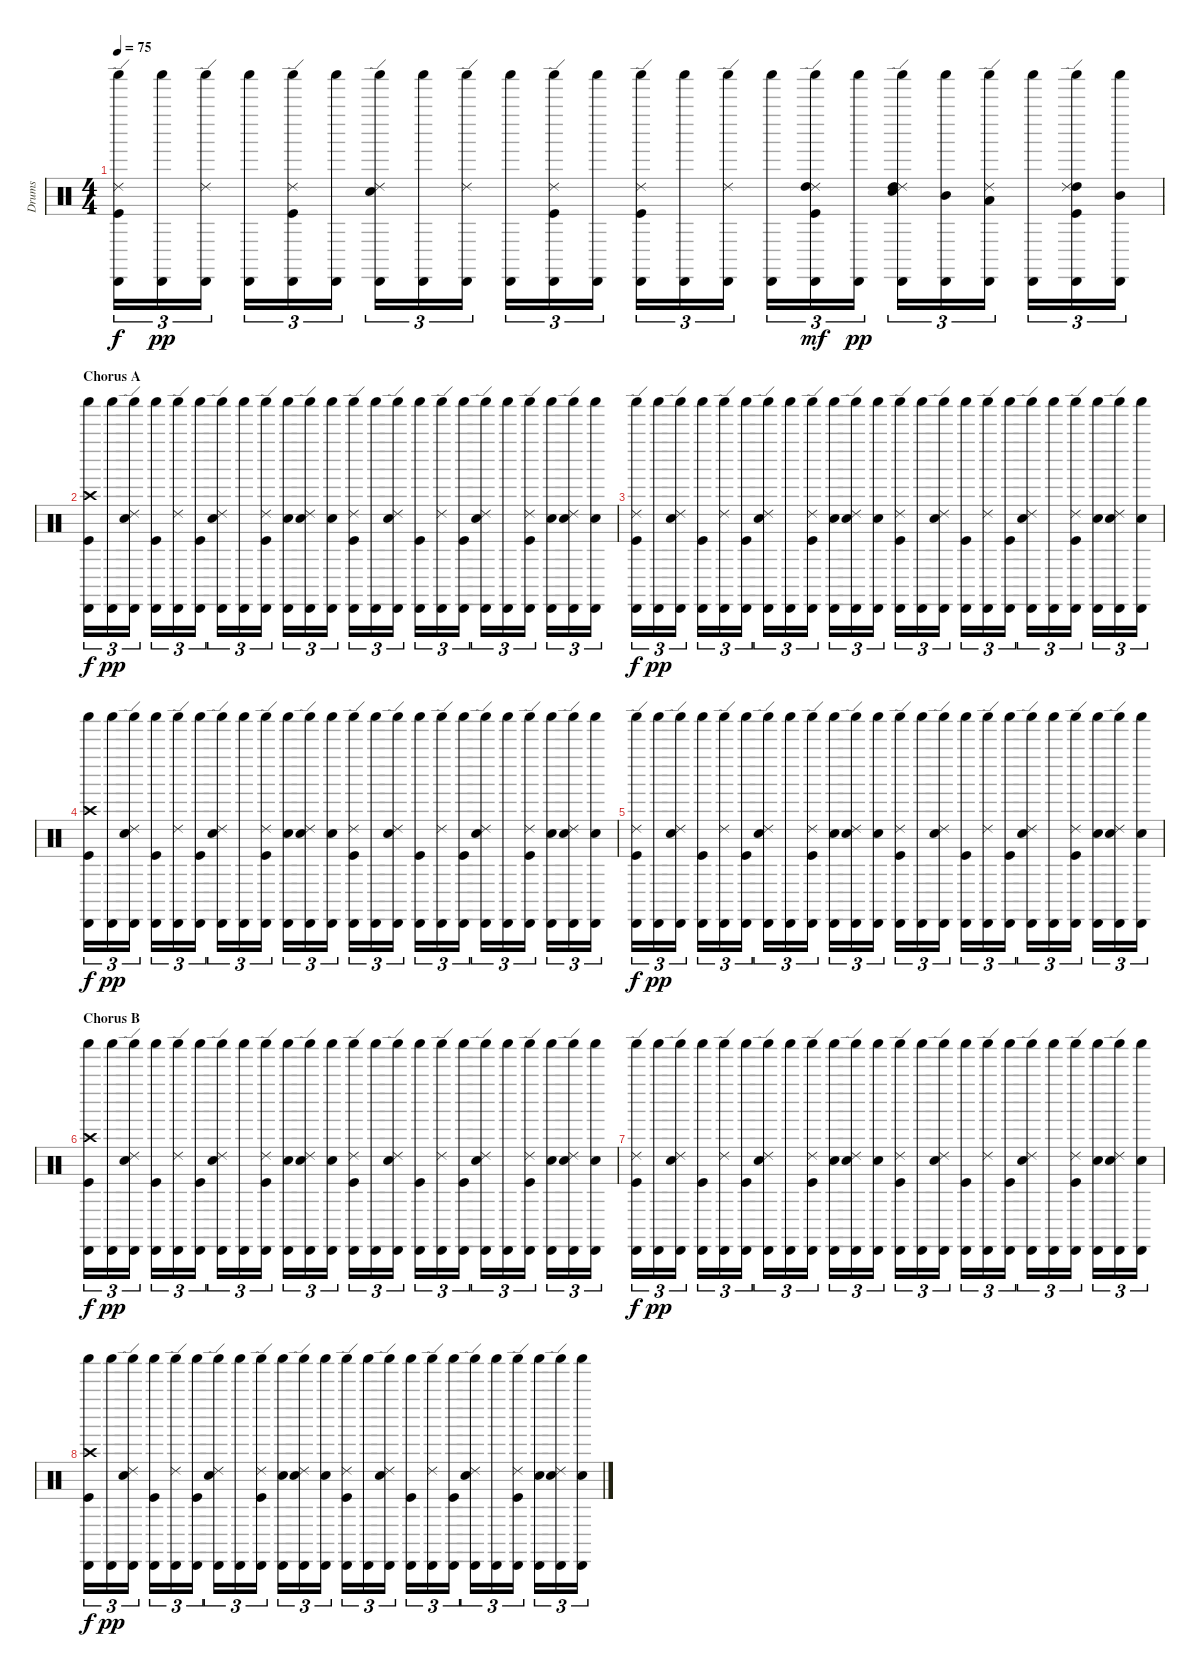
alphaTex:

\track ("Drums" "Drums") {instrument percussion}
\staff {score}
\articulation defaults
\ts (4 4)
\tempo 75
\clef neutral
\ks c
("Ride (edge) 2" "Shaker (hit)" "Cabasa (hit)" "Kick (hit)").16{tu (3 2) dy f} ("Cabasa (hit)" "Shaker (hit)").16{tu (3 2) dy pp} ("Cabasa (hit)" "Ride (edge) 2" "Shaker (hit)").16{tu (3 2)} ("Cabasa (hit)" "Shaker (hit)").16{tu (3 2)} ("Ride (edge) 2" "Kick (hit)" "Cabasa (hit)" "Shaker (hit)").16{tu (3 2)} ("Cabasa (hit)" "Shaker (hit)").16{tu (3 2)} ("Electric Snare (hit)" "Cabasa (hit)" "Ride (edge) 2" "Shaker (hit)").16{tu (3 2)} ("Cabasa (hit)" "Shaker (hit)").16{tu (3 2)} ("Ride (edge) 2" "Cabasa (hit)" "Shaker (hit)").16{tu (3 2)} ("Cabasa (hit)" "Shaker (hit)").16{tu (3 2)} ("Cabasa (hit)" "Ride (edge) 2" "Kick (hit)" "Shaker (hit)").16{tu (3 2)} ("Cabasa (hit)" "Shaker (hit)").16{tu (3 2)} ("Ride (edge) 2" "Cabasa (hit)" "Kick (hit)" "Shaker (hit)").16{tu (3 2)} ("Cabasa (hit)" "Shaker (hit)").16{tu (3 2)} ("Ride (edge) 2" "Cabasa (hit)" "Shaker (hit)").16{tu (3 2)} ("Cabasa (hit)" "Shaker (hit)").16{tu (3 2)} ("Kick (hit)" "Ride (edge) 2" "Cabasa (hit)" "Shaker (hit)" "High Tom (hit)").16{tu (3 2) dy mf} ("Cabasa (hit)" "Shaker (hit)").16{tu (3 2) dy pp} ("Cabasa (hit)" "Ride (edge) 2" "Electric Snare (hit)" "High Tom (hit)" "Shaker (hit)").16{tu (3 2)} ("Mid Tom (hit)" "Cabasa (hit)" "Shaker (hit)").16{tu (3 2)} ("Low Tom (hit)" "Cabasa (hit)" "Ride (edge) 2" "Shaker (hit)").16{tu (3 2)} ("Cabasa (hit)" "Shaker (hit)").16{tu (3 2)} ("Cabasa (hit)" "High Tom (hit)" "Ride (edge) 2" "Kick (hit)" "Shaker (hit)").16{tu (3 2)} ("Mid Tom (hit)" "Cabasa (hit)" "Shaker (hit)").16{tu (3 2)} |
\section ("" "Chorus A")
("Cabasa (hit)" "Crash high (hit)" "Kick (hit)" "Shaker (hit)").16{tu (3 2) dy f} ("Cabasa (hit)" "Shaker (hit)").16{tu (3 2) dy pp} ("Electric Snare (hit)" "Ride (edge) 2" "Cabasa (hit)" "Shaker (hit)").16{tu (3 2)} ("Cabasa (hit)" "Kick (hit)" "Shaker (hit)").16{tu (3 2)} ("Ride (edge) 2" "Cabasa (hit)" "Shaker (hit)").16{tu (3 2)} ("Kick (hit)" "Cabasa (hit)" "Shaker (hit)").16{tu (3 2)} ("Cabasa (hit)" "Electric Snare (hit)" "Ride (edge) 2" "Shaker (hit)").16{tu (3 2)} ("Cabasa (hit)" "Shaker (hit)").16{tu (3 2)} ("Cabasa (hit)" "Ride (edge) 2" "Kick (hit)" "Shaker (hit)").16{tu (3 2)} ("Cabasa (hit)" "Electric Snare (hit)" "Shaker (hit)").16{tu (3 2)} ("Electric Snare (hit)" "Ride (edge) 2" "Cabasa (hit)" "Shaker (hit)").16{tu (3 2)} ("Cabasa (hit)" "Electric Snare (hit)" "Shaker (hit)").16{tu (3 2)} ("Cabasa (hit)" "Ride (edge) 2" "Kick (hit)" "Shaker (hit)").16{tu (3 2)} ("Cabasa (hit)" "Shaker (hit)").16{tu (3 2)} ("Cabasa (hit)" "Electric Snare (hit)" "Ride (edge) 2" "Shaker (hit)").16{tu (3 2)} ("Cabasa (hit)" "Kick (hit)" "Shaker (hit)").16{tu (3 2)} ("Cabasa (hit)" "Ride (edge) 2" "Shaker (hit)").16{tu (3 2)} ("Kick (hit)" "Cabasa (hit)" "Shaker (hit)").16{tu (3 2)} ("Cabasa (hit)" "Electric Snare (hit)" "Ride (edge) 2" "Shaker (hit)").16{tu (3 2)} ("Cabasa (hit)" "Shaker (hit)").16{tu (3 2)} ("Cabasa (hit)" "Kick (hit)" "Ride (edge) 2" "Shaker (hit)").16{tu (3 2)} ("Cabasa (hit)" "Electric Snare (hit)" "Shaker (hit)").16{tu (3 2)} ("Electric Snare (hit)" "Ride (edge) 2" "Cabasa (hit)" "Shaker (hit)").16{tu (3 2)} ("Cabasa (hit)" "Electric Snare (hit)" "Shaker (hit)").16{tu (3 2)} |
("Cabasa (hit)" "Ride (edge) 2" "Kick (hit)" "Shaker (hit)").16{tu (3 2) dy f} ("Cabasa (hit)" "Shaker (hit)").16{tu (3 2) dy pp} ("Electric Snare (hit)" "Ride (edge) 2" "Cabasa (hit)" "Shaker (hit)").16{tu (3 2)} ("Cabasa (hit)" "Kick (hit)" "Shaker (hit)").16{tu (3 2)} ("Ride (edge) 2" "Cabasa (hit)" "Shaker (hit)").16{tu (3 2)} ("Kick (hit)" "Cabasa (hit)" "Shaker (hit)").16{tu (3 2)} ("Cabasa (hit)" "Electric Snare (hit)" "Ride (edge) 2" "Shaker (hit)").16{tu (3 2)} ("Cabasa (hit)" "Shaker (hit)").16{tu (3 2)} ("Cabasa (hit)" "Ride (edge) 2" "Kick (hit)" "Shaker (hit)").16{tu (3 2)} ("Cabasa (hit)" "Electric Snare (hit)" "Shaker (hit)").16{tu (3 2)} ("Electric Snare (hit)" "Ride (edge) 2" "Cabasa (hit)" "Shaker (hit)").16{tu (3 2)} ("Cabasa (hit)" "Electric Snare (hit)" "Shaker (hit)").16{tu (3 2)} ("Cabasa (hit)" "Ride (edge) 2" "Kick (hit)" "Shaker (hit)").16{tu (3 2)} ("Cabasa (hit)" "Shaker (hit)").16{tu (3 2)} ("Cabasa (hit)" "Electric Snare (hit)" "Ride (edge) 2" "Shaker (hit)").16{tu (3 2)} ("Cabasa (hit)" "Kick (hit)" "Shaker (hit)").16{tu (3 2)} ("Cabasa (hit)" "Ride (edge) 2" "Shaker (hit)").16{tu (3 2)} ("Kick (hit)" "Cabasa (hit)" "Shaker (hit)").16{tu (3 2)} ("Cabasa (hit)" "Electric Snare (hit)" "Ride (edge) 2" "Shaker (hit)").16{tu (3 2)} ("Cabasa (hit)" "Shaker (hit)").16{tu (3 2)} ("Cabasa (hit)" "Kick (hit)" "Ride (edge) 2" "Shaker (hit)").16{tu (3 2)} ("Cabasa (hit)" "Electric Snare (hit)" "Shaker (hit)").16{tu (3 2)} ("Electric Snare (hit)" "Ride (edge) 2" "Cabasa (hit)" "Shaker (hit)").16{tu (3 2)} ("Cabasa (hit)" "Electric Snare (hit)" "Shaker (hit)").16{tu (3 2)} |
("Cabasa (hit)" "Crash high (hit)" "Kick (hit)" "Shaker (hit)").16{tu (3 2) dy f} ("Cabasa (hit)" "Shaker (hit)").16{tu (3 2) dy pp} ("Electric Snare (hit)" "Ride (edge) 2" "Cabasa (hit)" "Shaker (hit)").16{tu (3 2)} ("Cabasa (hit)" "Kick (hit)" "Shaker (hit)").16{tu (3 2)} ("Ride (edge) 2" "Cabasa (hit)" "Shaker (hit)").16{tu (3 2)} ("Kick (hit)" "Cabasa (hit)" "Shaker (hit)").16{tu (3 2)} ("Cabasa (hit)" "Electric Snare (hit)" "Ride (edge) 2" "Shaker (hit)").16{tu (3 2)} ("Cabasa (hit)" "Shaker (hit)").16{tu (3 2)} ("Cabasa (hit)" "Ride (edge) 2" "Kick (hit)" "Shaker (hit)").16{tu (3 2)} ("Cabasa (hit)" "Electric Snare (hit)" "Shaker (hit)").16{tu (3 2)} ("Electric Snare (hit)" "Ride (edge) 2" "Cabasa (hit)" "Shaker (hit)").16{tu (3 2)} ("Cabasa (hit)" "Electric Snare (hit)" "Shaker (hit)").16{tu (3 2)} ("Cabasa (hit)" "Ride (edge) 2" "Kick (hit)" "Shaker (hit)").16{tu (3 2)} ("Cabasa (hit)" "Shaker (hit)").16{tu (3 2)} ("Cabasa (hit)" "Electric Snare (hit)" "Ride (edge) 2" "Shaker (hit)").16{tu (3 2)} ("Cabasa (hit)" "Kick (hit)" "Shaker (hit)").16{tu (3 2)} ("Cabasa (hit)" "Ride (edge) 2" "Shaker (hit)").16{tu (3 2)} ("Kick (hit)" "Cabasa (hit)" "Shaker (hit)").16{tu (3 2)} ("Cabasa (hit)" "Electric Snare (hit)" "Ride (edge) 2" "Shaker (hit)").16{tu (3 2)} ("Cabasa (hit)" "Shaker (hit)").16{tu (3 2)} ("Cabasa (hit)" "Kick (hit)" "Ride (edge) 2" "Shaker (hit)").16{tu (3 2)} ("Cabasa (hit)" "Electric Snare (hit)" "Shaker (hit)").16{tu (3 2)} ("Electric Snare (hit)" "Ride (edge) 2" "Cabasa (hit)" "Shaker (hit)").16{tu (3 2)} ("Cabasa (hit)" "Electric Snare (hit)" "Shaker (hit)").16{tu (3 2)} |
("Cabasa (hit)" "Ride (edge) 2" "Kick (hit)" "Shaker (hit)").16{tu (3 2) dy f} ("Cabasa (hit)" "Shaker (hit)").16{tu (3 2) dy pp} ("Electric Snare (hit)" "Ride (edge) 2" "Cabasa (hit)" "Shaker (hit)").16{tu (3 2)} ("Cabasa (hit)" "Kick (hit)" "Shaker (hit)").16{tu (3 2)} ("Ride (edge) 2" "Cabasa (hit)" "Shaker (hit)").16{tu (3 2)} ("Kick (hit)" "Cabasa (hit)" "Shaker (hit)").16{tu (3 2)} ("Cabasa (hit)" "Electric Snare (hit)" "Ride (edge) 2" "Shaker (hit)").16{tu (3 2)} ("Cabasa (hit)" "Shaker (hit)").16{tu (3 2)} ("Cabasa (hit)" "Ride (edge) 2" "Kick (hit)" "Shaker (hit)").16{tu (3 2)} ("Cabasa (hit)" "Electric Snare (hit)" "Shaker (hit)").16{tu (3 2)} ("Electric Snare (hit)" "Ride (edge) 2" "Cabasa (hit)" "Shaker (hit)").16{tu (3 2)} ("Cabasa (hit)" "Electric Snare (hit)" "Shaker (hit)").16{tu (3 2)} ("Cabasa (hit)" "Ride (edge) 2" "Kick (hit)" "Shaker (hit)").16{tu (3 2)} ("Cabasa (hit)" "Shaker (hit)").16{tu (3 2)} ("Cabasa (hit)" "Electric Snare (hit)" "Ride (edge) 2" "Shaker (hit)").16{tu (3 2)} ("Cabasa (hit)" "Kick (hit)" "Shaker (hit)").16{tu (3 2)} ("Cabasa (hit)" "Ride (edge) 2" "Shaker (hit)").16{tu (3 2)} ("Kick (hit)" "Cabasa (hit)" "Shaker (hit)").16{tu (3 2)} ("Cabasa (hit)" "Electric Snare (hit)" "Ride (edge) 2" "Shaker (hit)").16{tu (3 2)} ("Cabasa (hit)" "Shaker (hit)").16{tu (3 2)} ("Cabasa (hit)" "Kick (hit)" "Ride (edge) 2" "Shaker (hit)").16{tu (3 2)} ("Cabasa (hit)" "Electric Snare (hit)" "Shaker (hit)").16{tu (3 2)} ("Electric Snare (hit)" "Ride (edge) 2" "Cabasa (hit)" "Shaker (hit)").16{tu (3 2)} ("Cabasa (hit)" "Electric Snare (hit)" "Shaker (hit)").16{tu (3 2)} |
\section ("" "Chorus B")
("Cabasa (hit)" "Crash high (hit)" "Kick (hit)" "Shaker (hit)").16{tu (3 2) dy f} ("Cabasa (hit)" "Shaker (hit)").16{tu (3 2) dy pp} ("Electric Snare (hit)" "Ride (edge) 2" "Cabasa (hit)" "Shaker (hit)").16{tu (3 2)} ("Cabasa (hit)" "Kick (hit)" "Shaker (hit)").16{tu (3 2)} ("Ride (edge) 2" "Cabasa (hit)" "Shaker (hit)").16{tu (3 2)} ("Kick (hit)" "Cabasa (hit)" "Shaker (hit)").16{tu (3 2)} ("Cabasa (hit)" "Electric Snare (hit)" "Ride (edge) 2" "Shaker (hit)").16{tu (3 2)} ("Cabasa (hit)" "Shaker (hit)").16{tu (3 2)} ("Cabasa (hit)" "Ride (edge) 2" "Kick (hit)" "Shaker (hit)").16{tu (3 2)} ("Cabasa (hit)" "Electric Snare (hit)" "Shaker (hit)").16{tu (3 2)} ("Electric Snare (hit)" "Ride (edge) 2" "Cabasa (hit)" "Shaker (hit)").16{tu (3 2)} ("Cabasa (hit)" "Electric Snare (hit)" "Shaker (hit)").16{tu (3 2)} ("Cabasa (hit)" "Ride (edge) 2" "Kick (hit)" "Shaker (hit)").16{tu (3 2)} ("Cabasa (hit)" "Shaker (hit)").16{tu (3 2)} ("Cabasa (hit)" "Electric Snare (hit)" "Ride (edge) 2" "Shaker (hit)").16{tu (3 2)} ("Cabasa (hit)" "Kick (hit)" "Shaker (hit)").16{tu (3 2)} ("Cabasa (hit)" "Ride (edge) 2" "Shaker (hit)").16{tu (3 2)} ("Kick (hit)" "Cabasa (hit)" "Shaker (hit)").16{tu (3 2)} ("Cabasa (hit)" "Electric Snare (hit)" "Ride (edge) 2" "Shaker (hit)").16{tu (3 2)} ("Cabasa (hit)" "Shaker (hit)").16{tu (3 2)} ("Cabasa (hit)" "Kick (hit)" "Ride (edge) 2" "Shaker (hit)").16{tu (3 2)} ("Cabasa (hit)" "Electric Snare (hit)" "Shaker (hit)").16{tu (3 2)} ("Electric Snare (hit)" "Ride (edge) 2" "Cabasa (hit)" "Shaker (hit)").16{tu (3 2)} ("Cabasa (hit)" "Electric Snare (hit)" "Shaker (hit)").16{tu (3 2)} |
("Cabasa (hit)" "Ride (edge) 2" "Kick (hit)" "Shaker (hit)").16{tu (3 2) dy f} ("Cabasa (hit)" "Shaker (hit)").16{tu (3 2) dy pp} ("Electric Snare (hit)" "Ride (edge) 2" "Cabasa (hit)" "Shaker (hit)").16{tu (3 2)} ("Cabasa (hit)" "Kick (hit)" "Shaker (hit)").16{tu (3 2)} ("Ride (edge) 2" "Cabasa (hit)" "Shaker (hit)").16{tu (3 2)} ("Kick (hit)" "Cabasa (hit)" "Shaker (hit)").16{tu (3 2)} ("Cabasa (hit)" "Electric Snare (hit)" "Ride (edge) 2" "Shaker (hit)").16{tu (3 2)} ("Cabasa (hit)" "Shaker (hit)").16{tu (3 2)} ("Cabasa (hit)" "Ride (edge) 2" "Kick (hit)" "Shaker (hit)").16{tu (3 2)} ("Cabasa (hit)" "Electric Snare (hit)" "Shaker (hit)").16{tu (3 2)} ("Electric Snare (hit)" "Ride (edge) 2" "Cabasa (hit)" "Shaker (hit)").16{tu (3 2)} ("Cabasa (hit)" "Electric Snare (hit)" "Shaker (hit)").16{tu (3 2)} ("Cabasa (hit)" "Ride (edge) 2" "Kick (hit)" "Shaker (hit)").16{tu (3 2)} ("Cabasa (hit)" "Shaker (hit)").16{tu (3 2)} ("Cabasa (hit)" "Electric Snare (hit)" "Ride (edge) 2" "Shaker (hit)").16{tu (3 2)} ("Cabasa (hit)" "Kick (hit)" "Shaker (hit)").16{tu (3 2)} ("Cabasa (hit)" "Ride (edge) 2" "Shaker (hit)").16{tu (3 2)} ("Kick (hit)" "Cabasa (hit)" "Shaker (hit)").16{tu (3 2)} ("Cabasa (hit)" "Electric Snare (hit)" "Ride (edge) 2" "Shaker (hit)").16{tu (3 2)} ("Cabasa (hit)" "Shaker (hit)").16{tu (3 2)} ("Cabasa (hit)" "Kick (hit)" "Ride (edge) 2" "Shaker (hit)").16{tu (3 2)} ("Cabasa (hit)" "Electric Snare (hit)" "Shaker (hit)").16{tu (3 2)} ("Electric Snare (hit)" "Ride (edge) 2" "Cabasa (hit)" "Shaker (hit)").16{tu (3 2)} ("Cabasa (hit)" "Electric Snare (hit)" "Shaker (hit)").16{tu (3 2)} |
("Cabasa (hit)" "Crash high (hit)" "Kick (hit)" "Shaker (hit)").16{tu (3 2) dy f} ("Cabasa (hit)" "Shaker (hit)").16{tu (3 2) dy pp} ("Electric Snare (hit)" "Ride (edge) 2" "Cabasa (hit)" "Shaker (hit)").16{tu (3 2)} ("Cabasa (hit)" "Kick (hit)" "Shaker (hit)").16{tu (3 2)} ("Ride (edge) 2" "Cabasa (hit)" "Shaker (hit)").16{tu (3 2)} ("Kick (hit)" "Cabasa (hit)" "Shaker (hit)").16{tu (3 2)} ("Cabasa (hit)" "Electric Snare (hit)" "Ride (edge) 2" "Shaker (hit)").16{tu (3 2)} ("Cabasa (hit)" "Shaker (hit)").16{tu (3 2)} ("Cabasa (hit)" "Ride (edge) 2" "Kick (hit)" "Shaker (hit)").16{tu (3 2)} ("Cabasa (hit)" "Electric Snare (hit)" "Shaker (hit)").16{tu (3 2)} ("Electric Snare (hit)" "Ride (edge) 2" "Cabasa (hit)" "Shaker (hit)").16{tu (3 2)} ("Cabasa (hit)" "Electric Snare (hit)" "Shaker (hit)").16{tu (3 2)} ("Cabasa (hit)" "Ride (edge) 2" "Kick (hit)" "Shaker (hit)").16{tu (3 2)} ("Cabasa (hit)" "Shaker (hit)").16{tu (3 2)} ("Cabasa (hit)" "Electric Snare (hit)" "Ride (edge) 2" "Shaker (hit)").16{tu (3 2)} ("Cabasa (hit)" "Kick (hit)" "Shaker (hit)").16{tu (3 2)} ("Cabasa (hit)" "Ride (edge) 2" "Shaker (hit)").16{tu (3 2)} ("Kick (hit)" "Cabasa (hit)" "Shaker (hit)").16{tu (3 2)} ("Cabasa (hit)" "Electric Snare (hit)" "Ride (edge) 2" "Shaker (hit)").16{tu (3 2)} ("Cabasa (hit)" "Shaker (hit)").16{tu (3 2)} ("Cabasa (hit)" "Kick (hit)" "Ride (edge) 2" "Shaker (hit)").16{tu (3 2)} ("Cabasa (hit)" "Electric Snare (hit)" "Shaker (hit)").16{tu (3 2)} ("Electric Snare (hit)" "Ride (edge) 2" "Cabasa (hit)" "Shaker (hit)").16{tu (3 2)} ("Cabasa (hit)" "Electric Snare (hit)" "Shaker (hit)").16{tu (3 2)}
